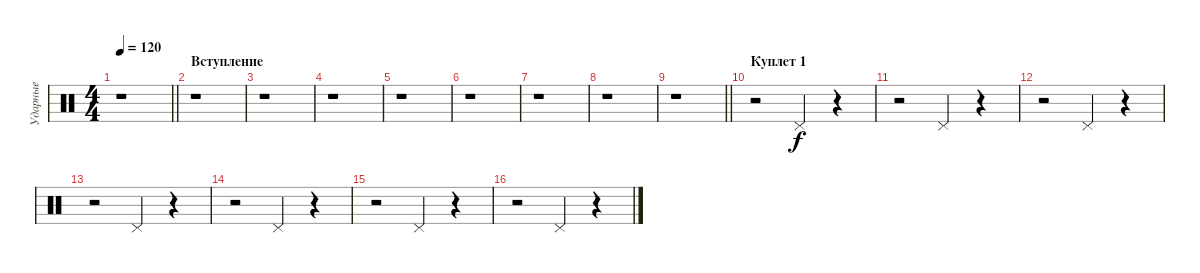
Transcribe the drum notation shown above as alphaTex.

\track ("Ударные" "Ударные") {instrument percussion}
\staff {score}
\articulation defaults
\ts (4 4)
\tempo 120
\clef neutral
\barLineRight lightlight
\ks c
r.1{dy f} |
\section ("" "Вступление")
r.1 |
r.1 |
r.1 |
r.1 |
r.1 |
r.1 |
r.1 |
\barLineRight lightlight
r.1 |
\section ("" "Куплет 1")
r.2 "Pedal Hi-Hat (hit)".4 r.4 |
r.2 "Pedal Hi-Hat (hit)".4 r.4 |
r.2 "Pedal Hi-Hat (hit)".4 r.4 |
r.2 "Pedal Hi-Hat (hit)".4 r.4 |
r.2 "Pedal Hi-Hat (hit)".4 r.4 |
r.2 "Pedal Hi-Hat (hit)".4 r.4 |
r.2 "Pedal Hi-Hat (hit)".4 r.4
